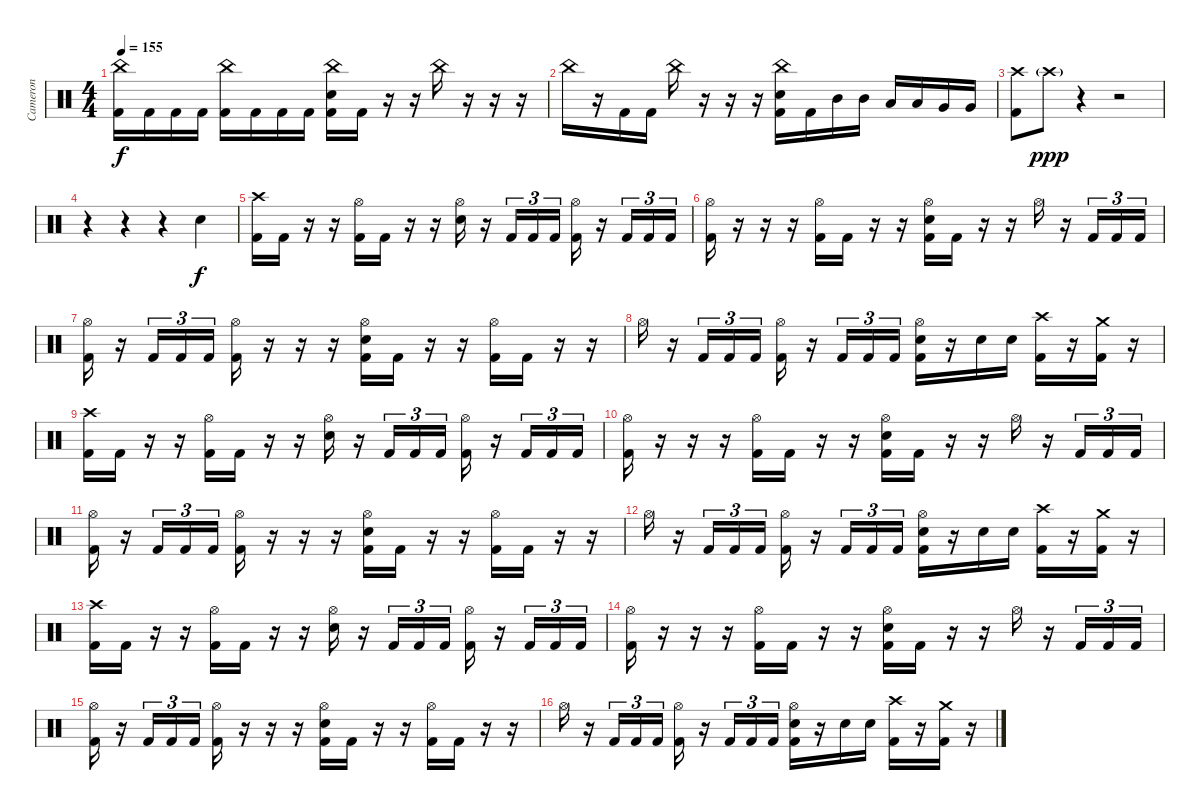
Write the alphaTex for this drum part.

\track ("Cameron" "Cameron") {instrument percussion}
\staff {score}
\articulation defaults
\ts (4 4)
\tempo 155
\clef neutral
\ks c
("China (hit)" "Kick (hit) 2").16{dy f} "Kick (hit) 2".16 "Kick (hit) 2".16 "Kick (hit) 2".16 ("China (hit)" "Kick (hit) 2").16 "Kick (hit) 2".16 "Kick (hit) 2".16 "Kick (hit) 2".16 ("China (hit)" "Snare (hit) 2" "Kick (hit) 2").16 "Kick (hit) 2".16 r.16 r.16 "China (hit)".16 r.16 r.16 r.16 |
"China (hit)".16 r.16 "Kick (hit) 2".16 "Kick (hit) 2".16 "China (hit)".16 r.16 r.16 r.16 ("China (hit)" "Snare (hit) 2" "Kick (hit) 2").16 "Kick (hit) 2".16 "Mid Tom (hit)".16 "Mid Tom (hit)".16 "Low Tom (hit)".16 "Low Tom (hit)".16 "Very Low Tom (hit)".16 "Very Low Tom (hit)".16 |
("Crash high (hit)" "Kick (hit) 2").8 "Crash high (hit)"{g}.8{dy ppp} r.4 r.2 |
r.4 r.4 r.4 "Snare (hit) 2".4{dy f} |
("Crash high (hit)" "Kick (hit) 2").16 "Kick (hit) 2".16 r.16 r.16 ("Hi-Hat (open)" "Kick (hit) 2").16 "Kick (hit) 2".16 r.16 r.16 ("Hi-Hat (open)" "Snare (hit) 2").16 r.16 "Kick (hit) 2".16{tu (3 2)} "Kick (hit) 2".16{tu (3 2)} "Kick (hit) 2".16{tu (3 2)} ("Hi-Hat (open)" "Kick (hit) 2").16 r.16 "Kick (hit) 2".16{tu (3 2)} "Kick (hit) 2".16{tu (3 2)} "Kick (hit) 2".16{tu (3 2)} |
("Hi-Hat (open)" "Kick (hit) 2").16 r.16 r.16 r.16 ("Hi-Hat (open)" "Kick (hit) 2").16 "Kick (hit) 2".16 r.16 r.16 ("Hi-Hat (open)" "Snare (hit) 2" "Kick (hit) 2").16 "Kick (hit) 2".16 r.16 r.16 "Hi-Hat (open)".16 r.16 "Kick (hit) 2".16{tu (3 2)} "Kick (hit) 2".16{tu (3 2)} "Kick (hit) 2".16{tu (3 2)} |
("Hi-Hat (open)" "Kick (hit) 2").16 r.16 "Kick (hit) 2".16{tu (3 2)} "Kick (hit) 2".16{tu (3 2)} "Kick (hit) 2".16{tu (3 2)} ("Hi-Hat (open)" "Kick (hit) 2").16 r.16 r.16 r.16 ("Hi-Hat (open)" "Snare (hit) 2" "Kick (hit) 2").16 "Kick (hit) 2".16 r.16 r.16 ("Hi-Hat (open)" "Kick (hit) 2").16 "Kick (hit) 2".16 r.16 r.16 |
"Hi-Hat (open)".16 r.16 "Kick (hit) 2".16{tu (3 2)} "Kick (hit) 2".16{tu (3 2)} "Kick (hit) 2".16{tu (3 2)} ("Hi-Hat (open)" "Kick (hit) 2").16 r.16 "Kick (hit) 2".16{tu (3 2)} "Kick (hit) 2".16{tu (3 2)} "Kick (hit) 2".16{tu (3 2)} ("Hi-Hat (open)" "Snare (hit) 2" "Kick (hit) 2").16 r.16 "Snare (hit) 2".16 "Snare (hit) 2".16 ("Crash high (hit)" "Kick (hit) 2").16 r.16 ("Crash medium (hit)" "Kick (hit) 2").16 r.16 |
("Crash high (hit)" "Kick (hit) 2").16 "Kick (hit) 2".16 r.16 r.16 ("Hi-Hat (open)" "Kick (hit) 2").16 "Kick (hit) 2".16 r.16 r.16 ("Hi-Hat (open)" "Snare (hit) 2").16 r.16 "Kick (hit) 2".16{tu (3 2)} "Kick (hit) 2".16{tu (3 2)} "Kick (hit) 2".16{tu (3 2)} ("Hi-Hat (open)" "Kick (hit) 2").16 r.16 "Kick (hit) 2".16{tu (3 2)} "Kick (hit) 2".16{tu (3 2)} "Kick (hit) 2".16{tu (3 2)} |
("Hi-Hat (open)" "Kick (hit) 2").16 r.16 r.16 r.16 ("Hi-Hat (open)" "Kick (hit) 2").16 "Kick (hit) 2".16 r.16 r.16 ("Hi-Hat (open)" "Snare (hit) 2" "Kick (hit) 2").16 "Kick (hit) 2".16 r.16 r.16 "Hi-Hat (open)".16 r.16 "Kick (hit) 2".16{tu (3 2)} "Kick (hit) 2".16{tu (3 2)} "Kick (hit) 2".16{tu (3 2)} |
("Hi-Hat (open)" "Kick (hit) 2").16 r.16 "Kick (hit) 2".16{tu (3 2)} "Kick (hit) 2".16{tu (3 2)} "Kick (hit) 2".16{tu (3 2)} ("Hi-Hat (open)" "Kick (hit) 2").16 r.16 r.16 r.16 ("Hi-Hat (open)" "Snare (hit) 2" "Kick (hit) 2").16 "Kick (hit) 2".16 r.16 r.16 ("Hi-Hat (open)" "Kick (hit) 2").16 "Kick (hit) 2".16 r.16 r.16 |
"Hi-Hat (open)".16 r.16 "Kick (hit) 2".16{tu (3 2)} "Kick (hit) 2".16{tu (3 2)} "Kick (hit) 2".16{tu (3 2)} ("Hi-Hat (open)" "Kick (hit) 2").16 r.16 "Kick (hit) 2".16{tu (3 2)} "Kick (hit) 2".16{tu (3 2)} "Kick (hit) 2".16{tu (3 2)} ("Hi-Hat (open)" "Snare (hit) 2" "Kick (hit) 2").16 r.16 "Snare (hit) 2".16 "Snare (hit) 2".16 ("Crash high (hit)" "Kick (hit) 2").16 r.16 ("Crash medium (hit)" "Kick (hit) 2").16 r.16 |
("Crash high (hit)" "Kick (hit) 2").16 "Kick (hit) 2".16 r.16 r.16 ("Hi-Hat (open)" "Kick (hit) 2").16 "Kick (hit) 2".16 r.16 r.16 ("Hi-Hat (open)" "Snare (hit) 2").16 r.16 "Kick (hit) 2".16{tu (3 2)} "Kick (hit) 2".16{tu (3 2)} "Kick (hit) 2".16{tu (3 2)} ("Hi-Hat (open)" "Kick (hit) 2").16 r.16 "Kick (hit) 2".16{tu (3 2)} "Kick (hit) 2".16{tu (3 2)} "Kick (hit) 2".16{tu (3 2)} |
("Hi-Hat (open)" "Kick (hit) 2").16 r.16 r.16 r.16 ("Hi-Hat (open)" "Kick (hit) 2").16 "Kick (hit) 2".16 r.16 r.16 ("Hi-Hat (open)" "Snare (hit) 2" "Kick (hit) 2").16 "Kick (hit) 2".16 r.16 r.16 "Hi-Hat (open)".16 r.16 "Kick (hit) 2".16{tu (3 2)} "Kick (hit) 2".16{tu (3 2)} "Kick (hit) 2".16{tu (3 2)} |
("Hi-Hat (open)" "Kick (hit) 2").16 r.16 "Kick (hit) 2".16{tu (3 2)} "Kick (hit) 2".16{tu (3 2)} "Kick (hit) 2".16{tu (3 2)} ("Hi-Hat (open)" "Kick (hit) 2").16 r.16 r.16 r.16 ("Hi-Hat (open)" "Snare (hit) 2" "Kick (hit) 2").16 "Kick (hit) 2".16 r.16 r.16 ("Hi-Hat (open)" "Kick (hit) 2").16 "Kick (hit) 2".16 r.16 r.16 |
"Hi-Hat (open)".16 r.16 "Kick (hit) 2".16{tu (3 2)} "Kick (hit) 2".16{tu (3 2)} "Kick (hit) 2".16{tu (3 2)} ("Hi-Hat (open)" "Kick (hit) 2").16 r.16 "Kick (hit) 2".16{tu (3 2)} "Kick (hit) 2".16{tu (3 2)} "Kick (hit) 2".16{tu (3 2)} ("Hi-Hat (open)" "Snare (hit) 2" "Kick (hit) 2").16 r.16 "Snare (hit) 2".16 "Snare (hit) 2".16 ("Crash high (hit)" "Kick (hit) 2").16 r.16 ("Crash medium (hit)" "Kick (hit) 2").16 r.16
